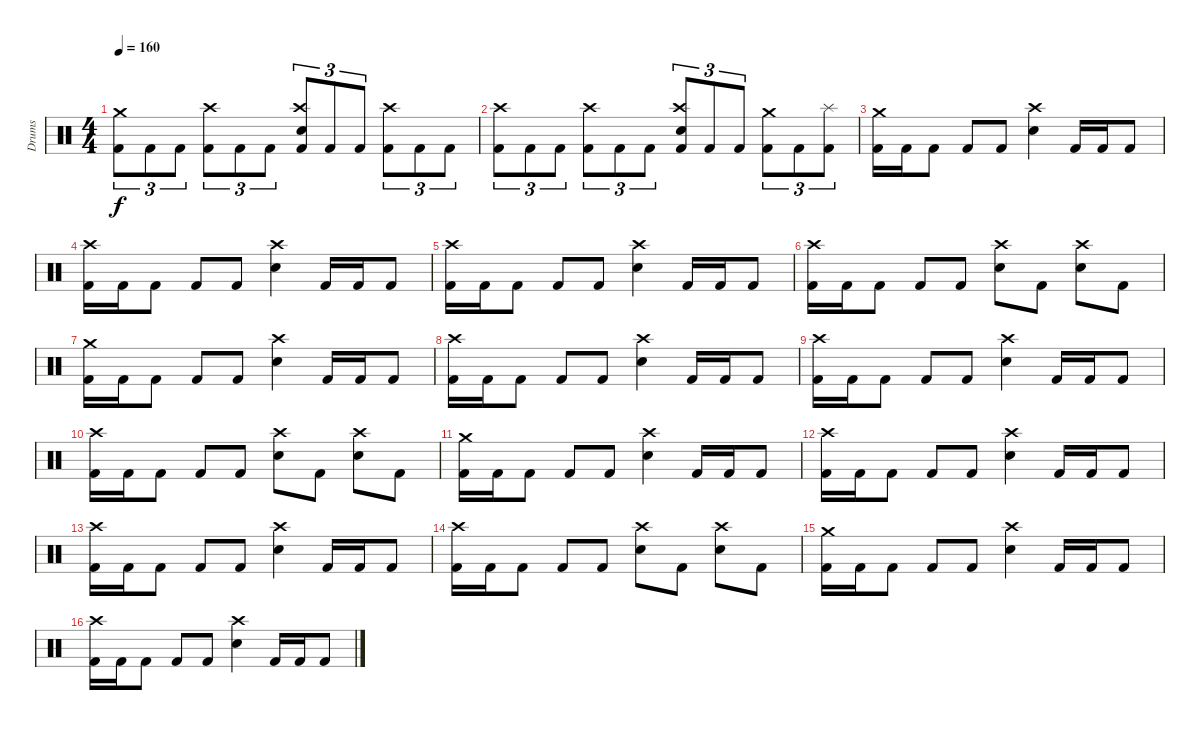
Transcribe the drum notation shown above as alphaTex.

\track ("Drums" "Drums") {instrument percussion}
\staff {score}
\articulation defaults
\ts (4 4)
\tempo 160
\clef neutral
\ks c
("Crash medium (hit)" "Kick (hit) 2").8{tu (3 2) dy f} "Kick (hit) 2".8{tu (3 2)} "Kick (hit) 2".8{tu (3 2)} ("Crash high (hit)" "Kick (hit) 2").8{tu (3 2)} "Kick (hit) 2".8{tu (3 2)} "Kick (hit) 2".8{tu (3 2)} ("Crash high (hit)" "Electric Snare (hit)" "Kick (hit) 2").8{tu (3 2)} "Kick (hit) 2".8{tu (3 2)} "Kick (hit) 2".8{tu (3 2)} ("Crash high (hit)" "Kick (hit) 2").8{tu (3 2)} "Kick (hit) 2".8{tu (3 2)} "Kick (hit) 2".8{tu (3 2)} |
("Crash high (hit)" "Kick (hit) 2").8{tu (3 2)} "Kick (hit) 2".8{tu (3 2)} "Kick (hit) 2".8{tu (3 2)} ("Crash high (hit)" "Kick (hit) 2").8{tu (3 2)} "Kick (hit) 2".8{tu (3 2)} "Kick (hit) 2".8{tu (3 2)} ("Crash high (hit)" "Electric Snare (hit)" "Kick (hit) 2").8{tu (3 2)} "Kick (hit) 2".8{tu (3 2)} "Kick (hit) 2".8{tu (3 2)} ("Crash medium (hit)" "Kick (hit) 2").8{tu (3 2)} "Kick (hit) 2".8{tu (3 2)} ("Splash (hit)" "Kick (hit) 2").8{tu (3 2)} |
("Crash medium (hit)" "Kick (hit) 2").16 "Kick (hit) 2".16 "Kick (hit) 2".8 "Kick (hit) 2".8 "Kick (hit) 2".8 ("Crash high (hit)" "Electric Snare (hit)").4 "Kick (hit) 2".16 "Kick (hit) 2".16 "Kick (hit) 2".8 |
("Crash high (hit)" "Kick (hit) 2").16 "Kick (hit) 2".16 "Kick (hit) 2".8 "Kick (hit) 2".8 "Kick (hit) 2".8 ("Crash high (hit)" "Electric Snare (hit)").4 "Kick (hit) 2".16 "Kick (hit) 2".16 "Kick (hit) 2".8 |
("Crash high (hit)" "Kick (hit) 2").16 "Kick (hit) 2".16 "Kick (hit) 2".8 "Kick (hit) 2".8 "Kick (hit) 2".8 ("Crash high (hit)" "Electric Snare (hit)").4 "Kick (hit) 2".16 "Kick (hit) 2".16 "Kick (hit) 2".8 |
("Crash high (hit)" "Kick (hit) 2").16 "Kick (hit) 2".16 "Kick (hit) 2".8 "Kick (hit) 2".8 "Kick (hit) 2".8 ("Crash high (hit)" "Electric Snare (hit)").8 "Kick (hit) 2".8 ("Crash high (hit)" "Electric Snare (hit)").8 "Kick (hit) 2".8 |
("Crash medium (hit)" "Kick (hit) 2").16 "Kick (hit) 2".16 "Kick (hit) 2".8 "Kick (hit) 2".8 "Kick (hit) 2".8 ("Crash high (hit)" "Electric Snare (hit)").4 "Kick (hit) 2".16 "Kick (hit) 2".16 "Kick (hit) 2".8 |
("Crash high (hit)" "Kick (hit) 2").16 "Kick (hit) 2".16 "Kick (hit) 2".8 "Kick (hit) 2".8 "Kick (hit) 2".8 ("Crash high (hit)" "Electric Snare (hit)").4 "Kick (hit) 2".16 "Kick (hit) 2".16 "Kick (hit) 2".8 |
("Crash high (hit)" "Kick (hit) 2").16 "Kick (hit) 2".16 "Kick (hit) 2".8 "Kick (hit) 2".8 "Kick (hit) 2".8 ("Crash high (hit)" "Electric Snare (hit)").4 "Kick (hit) 2".16 "Kick (hit) 2".16 "Kick (hit) 2".8 |
("Crash high (hit)" "Kick (hit) 2").16 "Kick (hit) 2".16 "Kick (hit) 2".8 "Kick (hit) 2".8 "Kick (hit) 2".8 ("Crash high (hit)" "Electric Snare (hit)").8 "Kick (hit) 2".8 ("Crash high (hit)" "Electric Snare (hit)").8 "Kick (hit) 2".8 |
("Crash medium (hit)" "Kick (hit) 2").16 "Kick (hit) 2".16 "Kick (hit) 2".8 "Kick (hit) 2".8 "Kick (hit) 2".8 ("Crash high (hit)" "Electric Snare (hit)").4 "Kick (hit) 2".16 "Kick (hit) 2".16 "Kick (hit) 2".8 |
("Crash high (hit)" "Kick (hit) 2").16 "Kick (hit) 2".16 "Kick (hit) 2".8 "Kick (hit) 2".8 "Kick (hit) 2".8 ("Crash high (hit)" "Electric Snare (hit)").4 "Kick (hit) 2".16 "Kick (hit) 2".16 "Kick (hit) 2".8 |
("Crash high (hit)" "Kick (hit) 2").16 "Kick (hit) 2".16 "Kick (hit) 2".8 "Kick (hit) 2".8 "Kick (hit) 2".8 ("Crash high (hit)" "Electric Snare (hit)").4 "Kick (hit) 2".16 "Kick (hit) 2".16 "Kick (hit) 2".8 |
("Crash high (hit)" "Kick (hit) 2").16 "Kick (hit) 2".16 "Kick (hit) 2".8 "Kick (hit) 2".8 "Kick (hit) 2".8 ("Crash high (hit)" "Electric Snare (hit)").8 "Kick (hit) 2".8 ("Crash high (hit)" "Electric Snare (hit)").8 "Kick (hit) 2".8 |
("Crash medium (hit)" "Kick (hit) 2").16 "Kick (hit) 2".16 "Kick (hit) 2".8 "Kick (hit) 2".8 "Kick (hit) 2".8 ("Crash high (hit)" "Electric Snare (hit)").4 "Kick (hit) 2".16 "Kick (hit) 2".16 "Kick (hit) 2".8 |
("Crash high (hit)" "Kick (hit) 2").16 "Kick (hit) 2".16 "Kick (hit) 2".8 "Kick (hit) 2".8 "Kick (hit) 2".8 ("Crash high (hit)" "Electric Snare (hit)").4 "Kick (hit) 2".16 "Kick (hit) 2".16 "Kick (hit) 2".8
